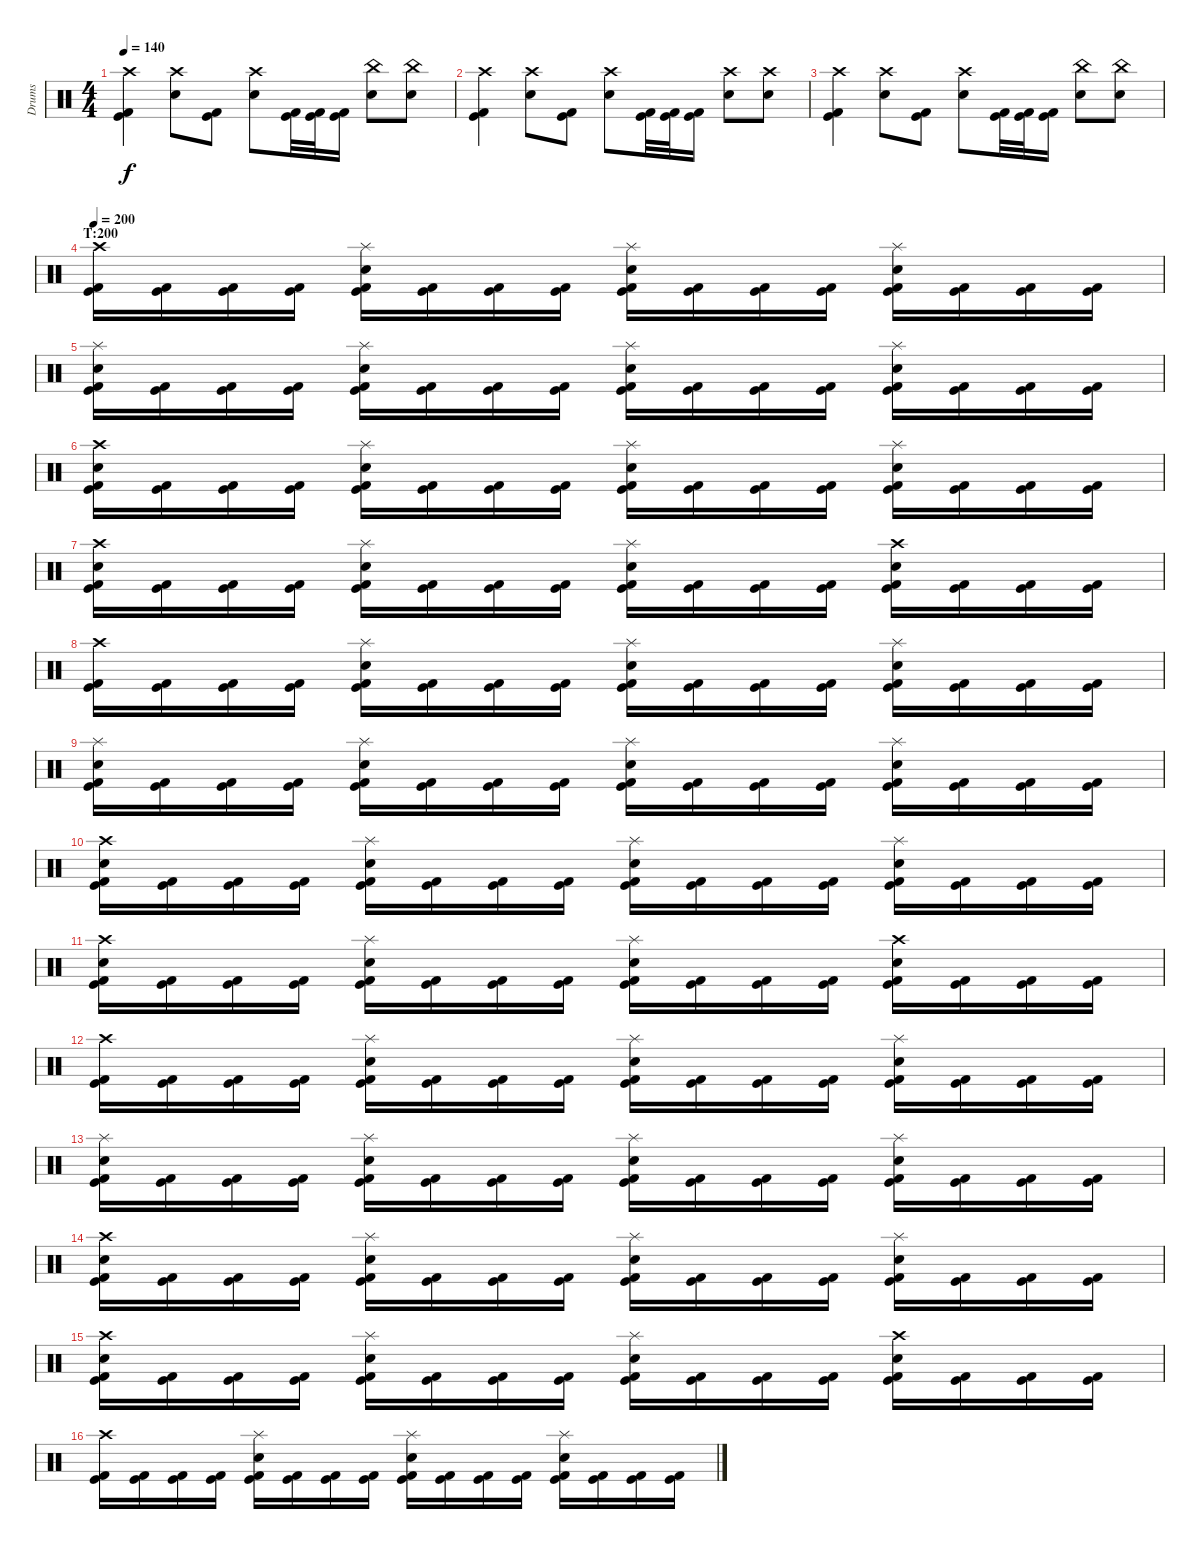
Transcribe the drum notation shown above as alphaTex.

\track ("Drums" "Drums") {instrument percussion}
\staff {score}
\articulation defaults
\ts (4 4)
\tempo 140
\clef neutral
\ks c
("Crash high (hit)" "Kick (hit)" "Kick (hit) 2").4{dy f} ("Crash high (hit)" "Electric Snare (hit)").8 ("Kick (hit)" "Kick (hit) 2").8 ("Crash high (hit)" "Electric Snare (hit)").8 ("Kick (hit)" "Kick (hit) 2").32 ("Kick (hit)" "Kick (hit) 2").32 ("Kick (hit)" "Kick (hit) 2").16 ("China (hit)" "Electric Snare (hit)").8 ("China (hit)" "Electric Snare (hit)").8 |
("Crash high (hit)" "Kick (hit)" "Kick (hit) 2").4 ("Crash high (hit)" "Electric Snare (hit)").8 ("Kick (hit)" "Kick (hit) 2").8 ("Crash high (hit)" "Electric Snare (hit)").8 ("Kick (hit)" "Kick (hit) 2").32 ("Kick (hit)" "Kick (hit) 2").32 ("Kick (hit)" "Kick (hit) 2").16 ("Crash high (hit)" "Electric Snare (hit)").8 ("Crash high (hit)" "Electric Snare (hit)").8 |
("Crash high (hit)" "Kick (hit)" "Kick (hit) 2").4 ("Crash high (hit)" "Electric Snare (hit)").8 ("Kick (hit)" "Kick (hit) 2").8 ("Crash high (hit)" "Electric Snare (hit)").8 ("Kick (hit)" "Kick (hit) 2").32 ("Kick (hit)" "Kick (hit) 2").32 ("Kick (hit)" "Kick (hit) 2").16 ("China (hit)" "Electric Snare (hit)").8 ("China (hit)" "Electric Snare (hit)").8 |
\section ("" "T:200")
\tempo 200
("Crash high (hit)" "Kick (hit)" "Kick (hit) 2").16 ("Kick (hit)" "Kick (hit) 2").16 ("Kick (hit)" "Kick (hit) 2").16 ("Kick (hit)" "Kick (hit) 2").16 ("Splash (hit)" "Electric Snare (hit)" "Kick (hit)" "Kick (hit) 2").16 ("Kick (hit)" "Kick (hit) 2").16 ("Kick (hit)" "Kick (hit) 2").16 ("Kick (hit)" "Kick (hit) 2").16 ("Splash (hit)" "Electric Snare (hit)" "Kick (hit)" "Kick (hit) 2").16 ("Kick (hit)" "Kick (hit) 2").16 ("Kick (hit)" "Kick (hit) 2").16 ("Kick (hit)" "Kick (hit) 2").16 ("Splash (hit)" "Electric Snare (hit)" "Kick (hit)" "Kick (hit) 2").16 ("Kick (hit)" "Kick (hit) 2").16 ("Kick (hit)" "Kick (hit) 2").16 ("Kick (hit)" "Kick (hit) 2").16 |
("Splash (hit)" "Electric Snare (hit)" "Kick (hit)" "Kick (hit) 2").16 ("Kick (hit)" "Kick (hit) 2").16 ("Kick (hit)" "Kick (hit) 2").16 ("Kick (hit)" "Kick (hit) 2").16 ("Splash (hit)" "Electric Snare (hit)" "Kick (hit)" "Kick (hit) 2").16 ("Kick (hit)" "Kick (hit) 2").16 ("Kick (hit)" "Kick (hit) 2").16 ("Kick (hit)" "Kick (hit) 2").16 ("Splash (hit)" "Electric Snare (hit)" "Kick (hit)" "Kick (hit) 2").16 ("Kick (hit)" "Kick (hit) 2").16 ("Kick (hit)" "Kick (hit) 2").16 ("Kick (hit)" "Kick (hit) 2").16 ("Splash (hit)" "Electric Snare (hit)" "Kick (hit)" "Kick (hit) 2").16 ("Kick (hit)" "Kick (hit) 2").16 ("Kick (hit)" "Kick (hit) 2").16 ("Kick (hit)" "Kick (hit) 2").16 |
("Crash high (hit)" "Electric Snare (hit)" "Kick (hit)" "Kick (hit) 2").16 ("Kick (hit)" "Kick (hit) 2").16 ("Kick (hit)" "Kick (hit) 2").16 ("Kick (hit)" "Kick (hit) 2").16 ("Splash (hit)" "Electric Snare (hit)" "Kick (hit)" "Kick (hit) 2").16 ("Kick (hit)" "Kick (hit) 2").16 ("Kick (hit)" "Kick (hit) 2").16 ("Kick (hit)" "Kick (hit) 2").16 ("Splash (hit)" "Electric Snare (hit)" "Kick (hit)" "Kick (hit) 2").16 ("Kick (hit)" "Kick (hit) 2").16 ("Kick (hit)" "Kick (hit) 2").16 ("Kick (hit)" "Kick (hit) 2").16 ("Splash (hit)" "Electric Snare (hit)" "Kick (hit)" "Kick (hit) 2").16 ("Kick (hit)" "Kick (hit) 2").16 ("Kick (hit)" "Kick (hit) 2").16 ("Kick (hit)" "Kick (hit) 2").16 |
("Crash high (hit)" "Electric Snare (hit)" "Kick (hit)" "Kick (hit) 2").16 ("Kick (hit)" "Kick (hit) 2").16 ("Kick (hit)" "Kick (hit) 2").16 ("Kick (hit)" "Kick (hit) 2").16 ("Splash (hit)" "Electric Snare (hit)" "Kick (hit)" "Kick (hit) 2").16 ("Kick (hit)" "Kick (hit) 2").16 ("Kick (hit)" "Kick (hit) 2").16 ("Kick (hit)" "Kick (hit) 2").16 ("Splash (hit)" "Electric Snare (hit)" "Kick (hit)" "Kick (hit) 2").16 ("Kick (hit)" "Kick (hit) 2").16 ("Kick (hit)" "Kick (hit) 2").16 ("Kick (hit)" "Kick (hit) 2").16 ("Crash high (hit)" "Electric Snare (hit)" "Kick (hit)" "Kick (hit) 2").16 ("Kick (hit)" "Kick (hit) 2").16 ("Kick (hit)" "Kick (hit) 2").16 ("Kick (hit)" "Kick (hit) 2").16 |
("Crash high (hit)" "Kick (hit)" "Kick (hit) 2").16 ("Kick (hit)" "Kick (hit) 2").16 ("Kick (hit)" "Kick (hit) 2").16 ("Kick (hit)" "Kick (hit) 2").16 ("Splash (hit)" "Electric Snare (hit)" "Kick (hit)" "Kick (hit) 2").16 ("Kick (hit)" "Kick (hit) 2").16 ("Kick (hit)" "Kick (hit) 2").16 ("Kick (hit)" "Kick (hit) 2").16 ("Splash (hit)" "Electric Snare (hit)" "Kick (hit)" "Kick (hit) 2").16 ("Kick (hit)" "Kick (hit) 2").16 ("Kick (hit)" "Kick (hit) 2").16 ("Kick (hit)" "Kick (hit) 2").16 ("Splash (hit)" "Electric Snare (hit)" "Kick (hit)" "Kick (hit) 2").16 ("Kick (hit)" "Kick (hit) 2").16 ("Kick (hit)" "Kick (hit) 2").16 ("Kick (hit)" "Kick (hit) 2").16 |
("Splash (hit)" "Electric Snare (hit)" "Kick (hit)" "Kick (hit) 2").16 ("Kick (hit)" "Kick (hit) 2").16 ("Kick (hit)" "Kick (hit) 2").16 ("Kick (hit)" "Kick (hit) 2").16 ("Splash (hit)" "Electric Snare (hit)" "Kick (hit)" "Kick (hit) 2").16 ("Kick (hit)" "Kick (hit) 2").16 ("Kick (hit)" "Kick (hit) 2").16 ("Kick (hit)" "Kick (hit) 2").16 ("Splash (hit)" "Electric Snare (hit)" "Kick (hit)" "Kick (hit) 2").16 ("Kick (hit)" "Kick (hit) 2").16 ("Kick (hit)" "Kick (hit) 2").16 ("Kick (hit)" "Kick (hit) 2").16 ("Splash (hit)" "Electric Snare (hit)" "Kick (hit)" "Kick (hit) 2").16 ("Kick (hit)" "Kick (hit) 2").16 ("Kick (hit)" "Kick (hit) 2").16 ("Kick (hit)" "Kick (hit) 2").16 |
("Crash high (hit)" "Electric Snare (hit)" "Kick (hit)" "Kick (hit) 2").16 ("Kick (hit)" "Kick (hit) 2").16 ("Kick (hit)" "Kick (hit) 2").16 ("Kick (hit)" "Kick (hit) 2").16 ("Splash (hit)" "Electric Snare (hit)" "Kick (hit)" "Kick (hit) 2").16 ("Kick (hit)" "Kick (hit) 2").16 ("Kick (hit)" "Kick (hit) 2").16 ("Kick (hit)" "Kick (hit) 2").16 ("Splash (hit)" "Electric Snare (hit)" "Kick (hit)" "Kick (hit) 2").16 ("Kick (hit)" "Kick (hit) 2").16 ("Kick (hit)" "Kick (hit) 2").16 ("Kick (hit)" "Kick (hit) 2").16 ("Splash (hit)" "Electric Snare (hit)" "Kick (hit)" "Kick (hit) 2").16 ("Kick (hit)" "Kick (hit) 2").16 ("Kick (hit)" "Kick (hit) 2").16 ("Kick (hit)" "Kick (hit) 2").16 |
("Crash high (hit)" "Electric Snare (hit)" "Kick (hit)" "Kick (hit) 2").16 ("Kick (hit)" "Kick (hit) 2").16 ("Kick (hit)" "Kick (hit) 2").16 ("Kick (hit)" "Kick (hit) 2").16 ("Splash (hit)" "Electric Snare (hit)" "Kick (hit)" "Kick (hit) 2").16 ("Kick (hit)" "Kick (hit) 2").16 ("Kick (hit)" "Kick (hit) 2").16 ("Kick (hit)" "Kick (hit) 2").16 ("Splash (hit)" "Electric Snare (hit)" "Kick (hit)" "Kick (hit) 2").16 ("Kick (hit)" "Kick (hit) 2").16 ("Kick (hit)" "Kick (hit) 2").16 ("Kick (hit)" "Kick (hit) 2").16 ("Crash high (hit)" "Electric Snare (hit)" "Kick (hit)" "Kick (hit) 2").16 ("Kick (hit)" "Kick (hit) 2").16 ("Kick (hit)" "Kick (hit) 2").16 ("Kick (hit)" "Kick (hit) 2").16 |
("Crash high (hit)" "Kick (hit)" "Kick (hit) 2").16 ("Kick (hit)" "Kick (hit) 2").16 ("Kick (hit)" "Kick (hit) 2").16 ("Kick (hit)" "Kick (hit) 2").16 ("Splash (hit)" "Electric Snare (hit)" "Kick (hit)" "Kick (hit) 2").16 ("Kick (hit)" "Kick (hit) 2").16 ("Kick (hit)" "Kick (hit) 2").16 ("Kick (hit)" "Kick (hit) 2").16 ("Splash (hit)" "Electric Snare (hit)" "Kick (hit)" "Kick (hit) 2").16 ("Kick (hit)" "Kick (hit) 2").16 ("Kick (hit)" "Kick (hit) 2").16 ("Kick (hit)" "Kick (hit) 2").16 ("Splash (hit)" "Electric Snare (hit)" "Kick (hit)" "Kick (hit) 2").16 ("Kick (hit)" "Kick (hit) 2").16 ("Kick (hit)" "Kick (hit) 2").16 ("Kick (hit)" "Kick (hit) 2").16 |
("Splash (hit)" "Electric Snare (hit)" "Kick (hit)" "Kick (hit) 2").16 ("Kick (hit)" "Kick (hit) 2").16 ("Kick (hit)" "Kick (hit) 2").16 ("Kick (hit)" "Kick (hit) 2").16 ("Splash (hit)" "Electric Snare (hit)" "Kick (hit)" "Kick (hit) 2").16 ("Kick (hit)" "Kick (hit) 2").16 ("Kick (hit)" "Kick (hit) 2").16 ("Kick (hit)" "Kick (hit) 2").16 ("Splash (hit)" "Electric Snare (hit)" "Kick (hit)" "Kick (hit) 2").16 ("Kick (hit)" "Kick (hit) 2").16 ("Kick (hit)" "Kick (hit) 2").16 ("Kick (hit)" "Kick (hit) 2").16 ("Splash (hit)" "Electric Snare (hit)" "Kick (hit)" "Kick (hit) 2").16 ("Kick (hit)" "Kick (hit) 2").16 ("Kick (hit)" "Kick (hit) 2").16 ("Kick (hit)" "Kick (hit) 2").16 |
("Crash high (hit)" "Electric Snare (hit)" "Kick (hit)" "Kick (hit) 2").16 ("Kick (hit)" "Kick (hit) 2").16 ("Kick (hit)" "Kick (hit) 2").16 ("Kick (hit)" "Kick (hit) 2").16 ("Splash (hit)" "Electric Snare (hit)" "Kick (hit)" "Kick (hit) 2").16 ("Kick (hit)" "Kick (hit) 2").16 ("Kick (hit)" "Kick (hit) 2").16 ("Kick (hit)" "Kick (hit) 2").16 ("Splash (hit)" "Electric Snare (hit)" "Kick (hit)" "Kick (hit) 2").16 ("Kick (hit)" "Kick (hit) 2").16 ("Kick (hit)" "Kick (hit) 2").16 ("Kick (hit)" "Kick (hit) 2").16 ("Splash (hit)" "Electric Snare (hit)" "Kick (hit)" "Kick (hit) 2").16 ("Kick (hit)" "Kick (hit) 2").16 ("Kick (hit)" "Kick (hit) 2").16 ("Kick (hit)" "Kick (hit) 2").16 |
("Crash high (hit)" "Electric Snare (hit)" "Kick (hit)" "Kick (hit) 2").16 ("Kick (hit)" "Kick (hit) 2").16 ("Kick (hit)" "Kick (hit) 2").16 ("Kick (hit)" "Kick (hit) 2").16 ("Splash (hit)" "Electric Snare (hit)" "Kick (hit)" "Kick (hit) 2").16 ("Kick (hit)" "Kick (hit) 2").16 ("Kick (hit)" "Kick (hit) 2").16 ("Kick (hit)" "Kick (hit) 2").16 ("Splash (hit)" "Electric Snare (hit)" "Kick (hit)" "Kick (hit) 2").16 ("Kick (hit)" "Kick (hit) 2").16 ("Kick (hit)" "Kick (hit) 2").16 ("Kick (hit)" "Kick (hit) 2").16 ("Crash high (hit)" "Electric Snare (hit)" "Kick (hit)" "Kick (hit) 2").16 ("Kick (hit)" "Kick (hit) 2").16 ("Kick (hit)" "Kick (hit) 2").16 ("Kick (hit)" "Kick (hit) 2").16 |
("Crash high (hit)" "Kick (hit)" "Kick (hit) 2").16 ("Kick (hit)" "Kick (hit) 2").16 ("Kick (hit)" "Kick (hit) 2").16 ("Kick (hit)" "Kick (hit) 2").16 ("Splash (hit)" "Electric Snare (hit)" "Kick (hit)" "Kick (hit) 2").16 ("Kick (hit)" "Kick (hit) 2").16 ("Kick (hit)" "Kick (hit) 2").16 ("Kick (hit)" "Kick (hit) 2").16 ("Splash (hit)" "Electric Snare (hit)" "Kick (hit)" "Kick (hit) 2").16 ("Kick (hit)" "Kick (hit) 2").16 ("Kick (hit)" "Kick (hit) 2").16 ("Kick (hit)" "Kick (hit) 2").16 ("Splash (hit)" "Electric Snare (hit)" "Kick (hit)" "Kick (hit) 2").16 ("Kick (hit)" "Kick (hit) 2").16 ("Kick (hit)" "Kick (hit) 2").16 ("Kick (hit)" "Kick (hit) 2").16
